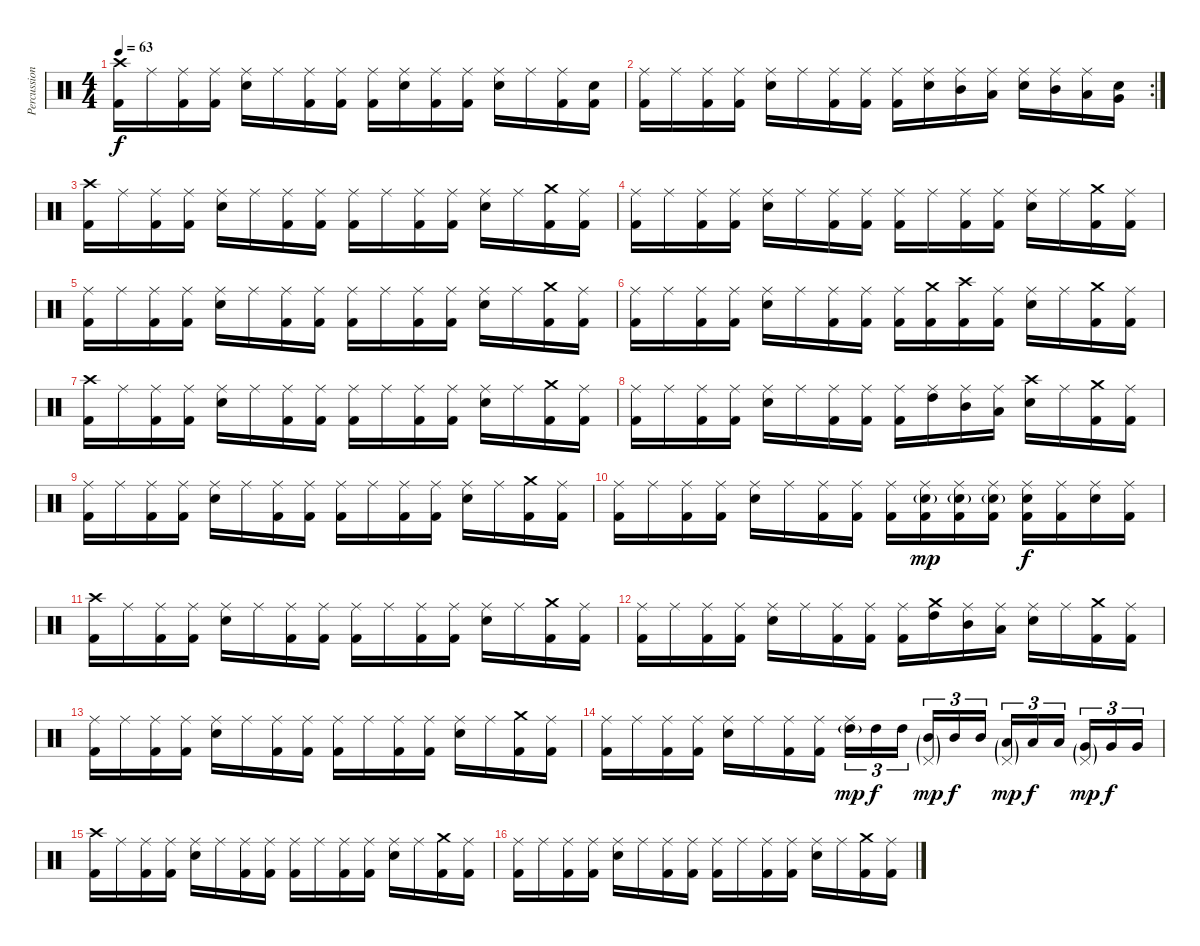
\track ("Percussion" "Percussion") {instrument percussion}
\staff {score}
\articulation defaults
\ts (4 4)
\tempo 63
\clef neutral
\ks c
("Crash high (hit)" "Kick (hit) 2").16{dy f} "Ride (middle)".16 ("Ride (middle)" "Kick (hit) 2").16 ("Ride (middle)" "Kick (hit) 2").16 ("Ride (middle)" "Electric Snare (hit)").16 "Ride (middle)".16 ("Ride (middle)" "Kick (hit) 2").16 ("Ride (middle)" "Kick (hit) 2").16 ("Ride (middle)" "Kick (hit) 2").16 ("Ride (middle)" "Electric Snare (hit)").16 ("Ride (middle)" "Kick (hit) 2").16 ("Ride (middle)" "Kick (hit) 2").16 ("Ride (middle)" "Electric Snare (hit)").16 "Ride (middle)".16 ("Ride (middle)" "Kick (hit) 2").16 ("Snare (hit)" "Kick (hit) 2").16 |
\rc 2
("Ride (middle)" "Kick (hit) 2").16 "Ride (middle)".16 ("Ride (middle)" "Kick (hit) 2").16 ("Ride (middle)" "Kick (hit) 2").16 ("Ride (middle)" "Electric Snare (hit)").16 "Ride (middle)".16 ("Ride (middle)" "Kick (hit) 2").16 ("Ride (middle)" "Kick (hit) 2").16 ("Ride (middle)" "Kick (hit) 2").16 ("Ride (middle)" "Electric Snare (hit)").16 ("Ride (middle)" "Mid Tom (hit)").16 ("Ride (middle)" "Low Tom (hit)").16 ("Ride (middle)" "Electric Snare (hit)").16 ("Ride (middle)" "Mid Tom (hit)").16 ("Ride (middle)" "Low Tom (hit)").16 ("Snare (hit)" "Very Low Tom (hit)").16 |
("Crash high (hit)" "Kick (hit) 2").16 "Ride (middle)".16 ("Ride (middle)" "Kick (hit) 2").16 ("Ride (middle)" "Kick (hit) 2").16 ("Ride (middle)" "Electric Snare (hit)").16 "Ride (middle)".16 ("Ride (middle)" "Kick (hit) 2").16 ("Ride (middle)" "Kick (hit) 2").16 ("Ride (middle)" "Kick (hit) 2").16 "Ride (middle)".16 ("Ride (middle)" "Kick (hit) 2").16 ("Ride (middle)" "Kick (hit) 2").16 ("Ride (middle)" "Electric Snare (hit)").16 "Ride (middle)".16 ("Crash medium (hit)" "Kick (hit) 2").16 ("Ride (middle)" "Kick (hit) 2").16 |
("Ride (middle)" "Kick (hit) 2").16 "Ride (middle)".16 ("Ride (middle)" "Kick (hit) 2").16 ("Ride (middle)" "Kick (hit) 2").16 ("Ride (middle)" "Electric Snare (hit)").16 "Ride (middle)".16 ("Ride (middle)" "Kick (hit) 2").16 ("Ride (middle)" "Kick (hit) 2").16 ("Ride (middle)" "Kick (hit) 2").16 "Ride (middle)".16 ("Ride (middle)" "Kick (hit) 2").16 ("Ride (middle)" "Kick (hit) 2").16 ("Ride (middle)" "Electric Snare (hit)").16 "Ride (middle)".16 ("Crash medium (hit)" "Kick (hit) 2").16 ("Ride (middle)" "Kick (hit) 2").16 |
("Ride (middle)" "Kick (hit) 2").16 "Ride (middle)".16 ("Ride (middle)" "Kick (hit) 2").16 ("Ride (middle)" "Kick (hit) 2").16 ("Ride (middle)" "Electric Snare (hit)").16 "Ride (middle)".16 ("Ride (middle)" "Kick (hit) 2").16 ("Ride (middle)" "Kick (hit) 2").16 ("Ride (middle)" "Kick (hit) 2").16 "Ride (middle)".16 ("Ride (middle)" "Kick (hit) 2").16 ("Ride (middle)" "Kick (hit) 2").16 ("Ride (middle)" "Electric Snare (hit)").16 "Ride (middle)".16 ("Crash medium (hit)" "Kick (hit) 2").16 ("Ride (middle)" "Kick (hit) 2").16 |
("Ride (middle)" "Kick (hit) 2").16 "Ride (middle)".16 ("Ride (middle)" "Kick (hit) 2").16 ("Ride (middle)" "Kick (hit) 2").16 ("Ride (middle)" "Electric Snare (hit)").16 "Ride (middle)".16 ("Ride (middle)" "Kick (hit) 2").16 ("Ride (middle)" "Kick (hit) 2").16 ("Ride (middle)" "Kick (hit) 2").16 ("Crash medium (hit)" "Kick (hit) 2").16 ("Crash high (hit)" "Kick (hit) 2").16 ("Ride (middle)" "Kick (hit) 2").16 ("Ride (middle)" "Electric Snare (hit)").16 "Ride (middle)".16 ("Crash medium (hit)" "Kick (hit) 2").16 ("Ride (middle)" "Kick (hit) 2").16 |
("Crash high (hit)" "Kick (hit) 2").16 "Ride (middle)".16 ("Ride (middle)" "Kick (hit) 2").16 ("Ride (middle)" "Kick (hit) 2").16 ("Ride (middle)" "Electric Snare (hit)").16 "Ride (middle)".16 ("Ride (middle)" "Kick (hit) 2").16 ("Ride (middle)" "Kick (hit) 2").16 ("Ride (middle)" "Kick (hit) 2").16 "Ride (middle)".16 ("Ride (middle)" "Kick (hit) 2").16 ("Ride (middle)" "Kick (hit) 2").16 ("Ride (middle)" "Electric Snare (hit)").16 "Ride (middle)".16 ("Crash medium (hit)" "Kick (hit) 2").16 ("Ride (middle)" "Kick (hit) 2").16 |
("Ride (middle)" "Kick (hit) 2").16 "Ride (middle)".16 ("Ride (middle)" "Kick (hit) 2").16 ("Ride (middle)" "Kick (hit) 2").16 ("Ride (middle)" "Electric Snare (hit)").16 "Ride (middle)".16 ("Ride (middle)" "Kick (hit) 2").16 ("Ride (middle)" "Kick (hit) 2").16 ("Ride (middle)" "Kick (hit) 2").16 ("Ride (middle)" "High Tom (hit)").16 ("Ride (middle)" "Mid Tom (hit)").16 ("Ride (middle)" "Low Tom (hit)").16 ("Crash high (hit)" "Electric Snare (hit)").16 "Ride (middle)".16 ("Crash medium (hit)" "Kick (hit) 2").16 ("Ride (middle)" "Kick (hit) 2").16 |
("Ride (middle)" "Kick (hit) 2").16 "Ride (middle)".16 ("Ride (middle)" "Kick (hit) 2").16 ("Ride (middle)" "Kick (hit) 2").16 ("Ride (middle)" "Electric Snare (hit)").16 "Ride (middle)".16 ("Ride (middle)" "Kick (hit) 2").16 ("Ride (middle)" "Kick (hit) 2").16 ("Ride (middle)" "Kick (hit) 2").16 "Ride (middle)".16 ("Ride (middle)" "Kick (hit) 2").16 ("Ride (middle)" "Kick (hit) 2").16 ("Ride (middle)" "Electric Snare (hit)").16 "Ride (middle)".16 ("Crash medium (hit)" "Kick (hit) 2").16 ("Ride (middle)" "Kick (hit) 2").16 |
("Ride (middle)" "Kick (hit) 2").16 "Ride (middle)".16 ("Ride (middle)" "Kick (hit) 2").16 ("Ride (middle)" "Kick (hit) 2").16 ("Ride (middle)" "Electric Snare (hit)").16 "Ride (middle)".16 ("Ride (middle)" "Kick (hit) 2").16 ("Ride (middle)" "Kick (hit) 2").16 ("Ride (middle)" "Kick (hit) 2").16 ("Ride (middle)" "Electric Snare (hit)"{g} "Kick (hit) 2").16{dy mp} ("Ride (middle)" "Electric Snare (hit)"{g} "Kick (hit) 2").16 ("Ride (middle)" "Electric Snare (hit)"{g} "Kick (hit) 2").16 ("Ride (middle)" "Electric Snare (hit)" "Kick (hit) 2").16{dy f} ("Ride (middle)" "Kick (hit) 2").16 ("Ride (middle)" "Electric Snare (hit)").16 ("Ride (middle)" "Kick (hit) 2").16 |
("Crash high (hit)" "Kick (hit) 2").16 "Ride (middle)".16 ("Ride (middle)" "Kick (hit) 2").16 ("Ride (middle)" "Kick (hit) 2").16 ("Ride (middle)" "Electric Snare (hit)").16 "Ride (middle)".16 ("Ride (middle)" "Kick (hit) 2").16 ("Ride (middle)" "Kick (hit) 2").16 ("Ride (middle)" "Kick (hit) 2").16 "Ride (middle)".16 ("Ride (middle)" "Kick (hit) 2").16 ("Ride (middle)" "Kick (hit) 2").16 ("Ride (middle)" "Electric Snare (hit)").16 "Ride (middle)".16 ("Crash medium (hit)" "Kick (hit) 2").16 ("Ride (middle)" "Kick (hit) 2").16 |
("Ride (middle)" "Kick (hit) 2").16 "Ride (middle)".16 ("Ride (middle)" "Kick (hit) 2").16 ("Ride (middle)" "Kick (hit) 2").16 ("Ride (middle)" "Electric Snare (hit)").16 "Ride (middle)".16 ("Ride (middle)" "Kick (hit) 2").16 ("Ride (middle)" "Kick (hit) 2").16 ("Ride (middle)" "Kick (hit) 2").16 ("Crash medium (hit)" "High Tom (hit)").16 ("Ride (middle)" "Mid Tom (hit)").16 ("Ride (middle)" "Low Tom (hit)").16 ("Ride (middle)" "Electric Snare (hit)").16 "Ride (middle)".16 ("Crash medium (hit)" "Kick (hit) 2").16 ("Ride (middle)" "Kick (hit) 2").16 |
("Ride (middle)" "Kick (hit) 2").16 "Ride (middle)".16 ("Ride (middle)" "Kick (hit) 2").16 ("Ride (middle)" "Kick (hit) 2").16 ("Ride (middle)" "Electric Snare (hit)").16 "Ride (middle)".16 ("Ride (middle)" "Kick (hit) 2").16 ("Ride (middle)" "Kick (hit) 2").16 ("Ride (middle)" "Kick (hit) 2").16 "Ride (middle)".16 ("Ride (middle)" "Kick (hit) 2").16 ("Ride (middle)" "Kick (hit) 2").16 ("Ride (middle)" "Electric Snare (hit)").16 "Ride (middle)".16 ("Crash medium (hit)" "Kick (hit) 2").16 ("Ride (middle)" "Kick (hit) 2").16 |
("Ride (middle)" "Kick (hit) 2").16 "Ride (middle)".16 ("Ride (middle)" "Kick (hit) 2").16 ("Ride (middle)" "Kick (hit) 2").16 ("Ride (middle)" "Electric Snare (hit)").16 "Ride (middle)".16 ("Ride (middle)" "Kick (hit) 2").16 ("Ride (middle)" "Kick (hit) 2").16 ("Ride (middle)" "High Tom (hit)"{g}).16{tu (3 2) dy mp} "High Tom (hit)".16{tu (3 2) dy f} "High Tom (hit)".16{tu (3 2)} ("Pedal Hi-Hat (hit)"{g} "Mid Tom (hit)"{g}).16{tu (3 2) dy mp} "Mid Tom (hit)".16{tu (3 2) dy f} "Mid Tom (hit)".16{tu (3 2)} ("Pedal Hi-Hat (hit)"{g} "Low Tom (hit)"{g}).16{tu (3 2) dy mp} "Low Tom (hit)".16{tu (3 2) dy f} "Low Tom (hit)".16{tu (3 2)} ("Pedal Hi-Hat (hit)"{g} "Very Low Tom (hit)"{g}).16{tu (3 2) dy mp} "Very Low Tom (hit)".16{tu (3 2) dy f} "Very Low Tom (hit)".16{tu (3 2)} |
("Crash high (hit)" "Kick (hit) 2").16 "Ride (middle)".16 ("Ride (middle)" "Kick (hit) 2").16 ("Ride (middle)" "Kick (hit) 2").16 ("Ride (middle)" "Electric Snare (hit)").16 "Ride (middle)".16 ("Ride (middle)" "Kick (hit) 2").16 ("Ride (middle)" "Kick (hit) 2").16 ("Ride (middle)" "Kick (hit) 2").16 "Ride (middle)".16 ("Ride (middle)" "Kick (hit) 2").16 ("Ride (middle)" "Kick (hit) 2").16 ("Ride (middle)" "Electric Snare (hit)").16 "Ride (middle)".16 ("Crash medium (hit)" "Kick (hit) 2").16 ("Ride (middle)" "Kick (hit) 2").16 |
("Ride (middle)" "Kick (hit) 2").16 "Ride (middle)".16 ("Ride (middle)" "Kick (hit) 2").16 ("Ride (middle)" "Kick (hit) 2").16 ("Ride (middle)" "Electric Snare (hit)").16 "Ride (middle)".16 ("Ride (middle)" "Kick (hit) 2").16 ("Ride (middle)" "Kick (hit) 2").16 ("Ride (middle)" "Kick (hit) 2").16 "Ride (middle)".16 ("Ride (middle)" "Kick (hit) 2").16 ("Ride (middle)" "Kick (hit) 2").16 ("Ride (middle)" "Electric Snare (hit)").16 "Ride (middle)".16 ("Crash medium (hit)" "Kick (hit) 2").16 ("Ride (middle)" "Kick (hit) 2").16
